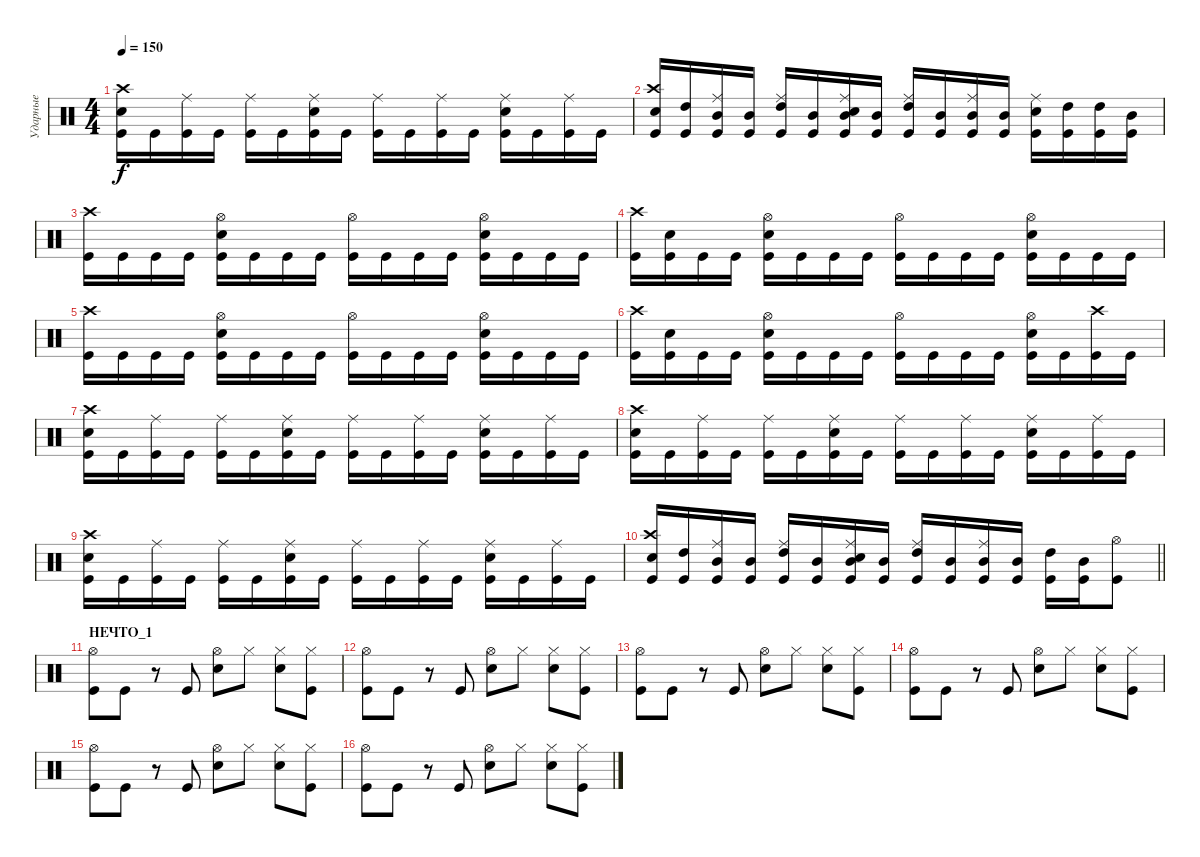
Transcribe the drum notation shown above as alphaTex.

\track ("Ударные" "Ударные") {instrument percussion}
\staff {score}
\articulation defaults
\ts (4 4)
\tempo 150
\clef neutral
\ks c
("Kick (hit)" "Crash high (hit)" "Snare (hit) 2").16{dy f} "Kick (hit)".16 ("Kick (hit)" "Ride (middle)").16 "Kick (hit)".16 ("Kick (hit)" "Ride (middle)").16 "Kick (hit)".16 ("Kick (hit)" "Snare (hit) 2" "Ride (middle)").16 "Kick (hit)".16 ("Kick (hit)" "Ride (middle)").16 "Kick (hit)".16 ("Kick (hit)" "Ride (middle)").16 "Kick (hit)".16 ("Kick (hit)" "Ride (middle)" "Snare (hit) 2").16 "Kick (hit)".16 ("Kick (hit)" "Ride (middle)").16 "Kick (hit)".16 |
("Kick (hit)" "Crash high (hit)" "Snare (hit) 2").16 ("Kick (hit)" "High Tom (hit)").16 ("Kick (hit)" "Ride (middle)" "Mid Tom (hit)").16 ("Kick (hit)" "Mid Tom (hit)").16 ("Kick (hit)" "Ride (middle)" "High Tom (hit)").16 ("Kick (hit)" "Mid Tom (hit)").16 ("Kick (hit)" "Snare (hit) 2" "Ride (middle)" "Mid Tom (hit)").16 ("Kick (hit)" "Mid Tom (hit)").16 ("Kick (hit)" "Ride (middle)" "High Tom (hit)").16 ("Kick (hit)" "Mid Tom (hit)").16 ("Kick (hit)" "Ride (middle)" "Mid Tom (hit)").16 ("Kick (hit)" "Mid Tom (hit)").16 ("Kick (hit)" "Ride (middle)" "Snare (hit) 2").16 ("Kick (hit)" "High Tom (hit)").16 ("Kick (hit)" "High Tom (hit)").16 ("Kick (hit)" "Mid Tom (hit)").16 |
("Kick (hit)" "Crash high (hit)").16 "Kick (hit)".16 "Kick (hit)".16 "Kick (hit)".16 ("Kick (hit)" "Hi-Hat (open)" "Snare (hit) 2").16 "Kick (hit)".16 "Kick (hit)".16 "Kick (hit)".16 ("Kick (hit)" "Hi-Hat (open)").16 "Kick (hit)".16 "Kick (hit)".16 "Kick (hit)".16 ("Kick (hit)" "Hi-Hat (open)" "Snare (hit) 2").16 "Kick (hit)".16 "Kick (hit)".16 "Kick (hit)".16 |
("Kick (hit)" "Crash high (hit)").16 ("Kick (hit)" "Snare (hit) 2").16 "Kick (hit)".16 "Kick (hit)".16 ("Kick (hit)" "Hi-Hat (open)" "Snare (hit) 2").16 "Kick (hit)".16 "Kick (hit)".16 "Kick (hit)".16 ("Kick (hit)" "Hi-Hat (open)").16 "Kick (hit)".16 "Kick (hit)".16 "Kick (hit)".16 ("Kick (hit)" "Hi-Hat (open)" "Snare (hit) 2").16 "Kick (hit)".16 "Kick (hit)".16 "Kick (hit)".16 |
("Kick (hit)" "Crash high (hit)").16 "Kick (hit)".16 "Kick (hit)".16 "Kick (hit)".16 ("Kick (hit)" "Hi-Hat (open)" "Snare (hit) 2").16 "Kick (hit)".16 "Kick (hit)".16 "Kick (hit)".16 ("Kick (hit)" "Hi-Hat (open)").16 "Kick (hit)".16 "Kick (hit)".16 "Kick (hit)".16 ("Kick (hit)" "Hi-Hat (open)" "Snare (hit) 2").16 "Kick (hit)".16 "Kick (hit)".16 "Kick (hit)".16 |
("Kick (hit)" "Crash high (hit)").16 ("Kick (hit)" "Snare (hit) 2").16 "Kick (hit)".16 "Kick (hit)".16 ("Kick (hit)" "Hi-Hat (open)" "Snare (hit) 2").16 "Kick (hit)".16 "Kick (hit)".16 "Kick (hit)".16 ("Kick (hit)" "Hi-Hat (open)").16 "Kick (hit)".16 "Kick (hit)".16 "Kick (hit)".16 ("Kick (hit)" "Hi-Hat (open)" "Snare (hit) 2").16 "Kick (hit)".16 ("Kick (hit)" "Crash high (hit)").16 "Kick (hit)".16 |
("Kick (hit)" "Crash high (hit)" "Snare (hit) 2").16 "Kick (hit)".16 ("Kick (hit)" "Ride (middle)").16 "Kick (hit)".16 ("Kick (hit)" "Ride (middle)").16 "Kick (hit)".16 ("Kick (hit)" "Snare (hit) 2" "Ride (middle)").16 "Kick (hit)".16 ("Kick (hit)" "Ride (middle)").16 "Kick (hit)".16 ("Kick (hit)" "Ride (middle)").16 "Kick (hit)".16 ("Kick (hit)" "Ride (middle)" "Snare (hit) 2").16 "Kick (hit)".16 ("Kick (hit)" "Ride (middle)").16 "Kick (hit)".16 |
("Kick (hit)" "Crash high (hit)" "Snare (hit) 2").16 "Kick (hit)".16 ("Kick (hit)" "Ride (middle)").16 "Kick (hit)".16 ("Kick (hit)" "Ride (middle)").16 "Kick (hit)".16 ("Kick (hit)" "Snare (hit) 2" "Ride (middle)").16 "Kick (hit)".16 ("Kick (hit)" "Ride (middle)").16 "Kick (hit)".16 ("Kick (hit)" "Ride (middle)").16 "Kick (hit)".16 ("Kick (hit)" "Ride (middle)" "Snare (hit) 2").16 "Kick (hit)".16 ("Kick (hit)" "Ride (middle)").16 "Kick (hit)".16 |
("Kick (hit)" "Crash high (hit)" "Snare (hit) 2").16 "Kick (hit)".16 ("Kick (hit)" "Ride (middle)").16 "Kick (hit)".16 ("Kick (hit)" "Ride (middle)").16 "Kick (hit)".16 ("Kick (hit)" "Snare (hit) 2" "Ride (middle)").16 "Kick (hit)".16 ("Kick (hit)" "Ride (middle)").16 "Kick (hit)".16 ("Kick (hit)" "Ride (middle)").16 "Kick (hit)".16 ("Kick (hit)" "Ride (middle)" "Snare (hit) 2").16 "Kick (hit)".16 ("Kick (hit)" "Ride (middle)").16 "Kick (hit)".16 |
\barLineRight lightlight
("Kick (hit)" "Crash high (hit)" "Snare (hit) 2").16 ("Kick (hit)" "High Tom (hit)").16 ("Kick (hit)" "Ride (middle)" "Mid Tom (hit)").16 ("Kick (hit)" "Mid Tom (hit)").16 ("Kick (hit)" "Ride (middle)" "High Tom (hit)").16 ("Kick (hit)" "Mid Tom (hit)").16 ("Kick (hit)" "Snare (hit) 2" "Ride (middle)" "Mid Tom (hit)").16 ("Kick (hit)" "Mid Tom (hit)").16 ("Kick (hit)" "Ride (middle)" "High Tom (hit)").16 ("Kick (hit)" "Mid Tom (hit)").16 ("Kick (hit)" "Ride (middle)" "Mid Tom (hit)").16 ("Kick (hit)" "Mid Tom (hit)").16 ("High Tom (hit)" "Kick (hit)").16 ("Mid Tom (hit)" "Kick (hit)").16 ("Kick (hit)" "Hi-Hat (open)").8 |
\section ("" "НЕЧТО_1")
("Hi-Hat (open)" "Kick (hit)").8 "Kick (hit)".8 r.8 "Kick (hit)".8 ("Snare (hit) 2" "Hi-Hat (open)").8 "Hi-Hat (closed)".8 ("Snare (hit) 2" "Hi-Hat (closed)").8 ("Kick (hit)" "Hi-Hat (closed)").8 |
("Hi-Hat (open)" "Kick (hit)").8 "Kick (hit)".8 r.8 "Kick (hit)".8 ("Snare (hit) 2" "Hi-Hat (open)").8 "Hi-Hat (closed)".8 ("Snare (hit) 2" "Hi-Hat (closed)").8 ("Kick (hit)" "Hi-Hat (closed)").8 |
("Hi-Hat (open)" "Kick (hit)").8 "Kick (hit)".8 r.8 "Kick (hit)".8 ("Snare (hit) 2" "Hi-Hat (open)").8 "Hi-Hat (closed)".8 ("Snare (hit) 2" "Hi-Hat (closed)").8 ("Kick (hit)" "Hi-Hat (closed)").8 |
("Hi-Hat (open)" "Kick (hit)").8 "Kick (hit)".8 r.8 "Kick (hit)".8 ("Snare (hit) 2" "Hi-Hat (open)").8 "Hi-Hat (closed)".8 ("Snare (hit) 2" "Hi-Hat (closed)").8 ("Kick (hit)" "Hi-Hat (closed)").8 |
("Hi-Hat (open)" "Kick (hit)").8 "Kick (hit)".8 r.8 "Kick (hit)".8 ("Snare (hit) 2" "Hi-Hat (open)").8 "Hi-Hat (closed)".8 ("Snare (hit) 2" "Hi-Hat (closed)").8 ("Kick (hit)" "Hi-Hat (closed)").8 |
("Hi-Hat (open)" "Kick (hit)").8 "Kick (hit)".8 r.8 "Kick (hit)".8 ("Snare (hit) 2" "Hi-Hat (open)").8 "Hi-Hat (closed)".8 ("Snare (hit) 2" "Hi-Hat (closed)").8 ("Kick (hit)" "Hi-Hat (closed)").8
